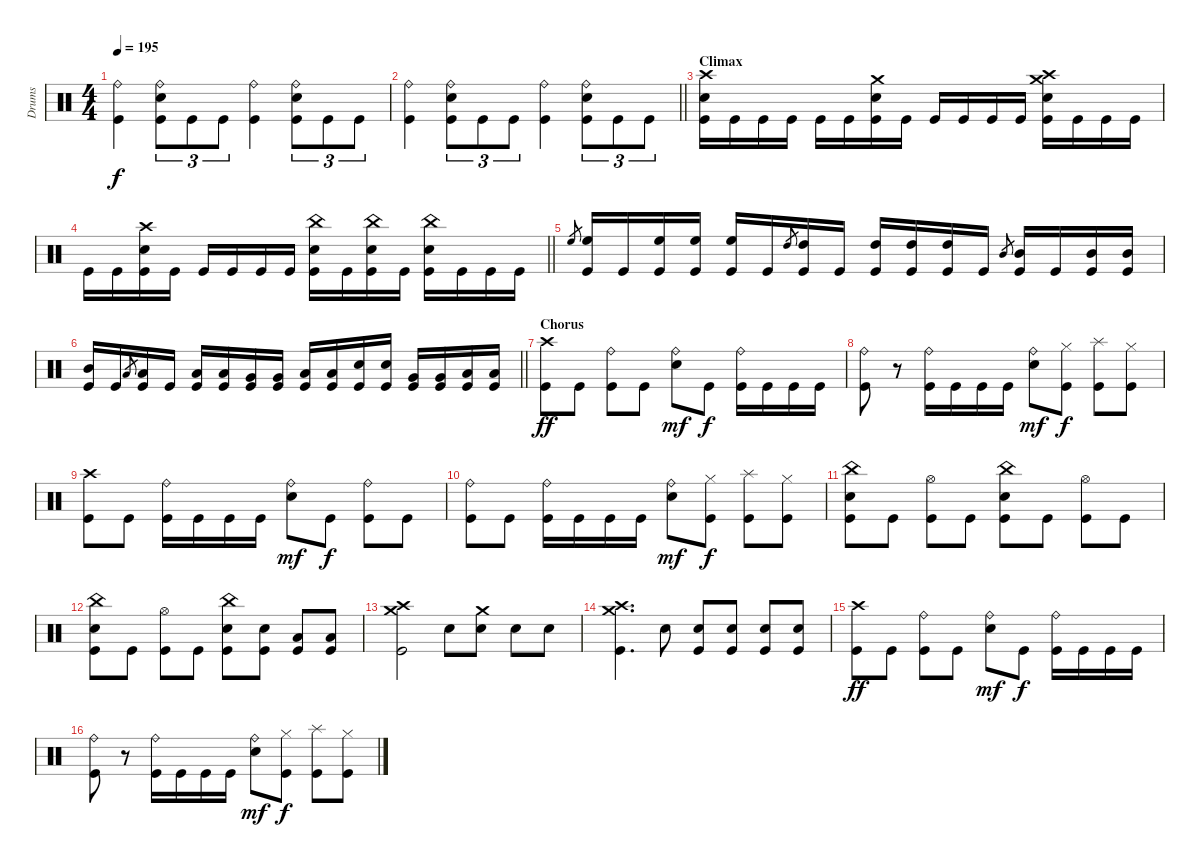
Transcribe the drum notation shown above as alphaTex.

\track ("Drums" "Drums") {instrument percussion}
\staff {score}
\articulation defaults
\ts (4 4)
\tempo 195
\clef neutral
\ks c
("Ride (bell)" "Kick (hit)").4{dy f} ("Ride (bell)" "Snare (hit) 2" "Kick (hit)").8{tu (3 2)} "Kick (hit)".8{tu (3 2)} "Kick (hit)".8{tu (3 2)} ("Ride (bell)" "Kick (hit)").4 ("Ride (bell)" "Snare (hit) 2" "Kick (hit)").8{tu (3 2)} "Kick (hit)".8{tu (3 2)} "Kick (hit)".8{tu (3 2)} |
\barLineRight lightlight
("Ride (bell)" "Kick (hit)").4 ("Ride (bell)" "Snare (hit) 2" "Kick (hit)").8{tu (3 2)} "Kick (hit)".8{tu (3 2)} "Kick (hit)".8{tu (3 2)} ("Ride (bell)" "Kick (hit)").4 ("Ride (bell)" "Snare (hit) 2" "Kick (hit)").8{tu (3 2)} "Kick (hit)".8{tu (3 2)} "Kick (hit)".8{tu (3 2)} |
\section ("" "Climax")
("Crash high (hit)" "Snare (hit) 2" "Kick (hit)").16 "Kick (hit)".16 "Kick (hit)".16 "Kick (hit)".16 "Kick (hit)".16 "Kick (hit)".16 ("Crash medium (hit)" "Snare (hit) 2" "Kick (hit)").16 "Kick (hit)".16 "Kick (hit)".16 "Kick (hit)".16 "Kick (hit)".16 "Kick (hit)".16 ("Crash high (hit)" "Snare (hit) 2" "Crash medium (hit)" "Kick (hit)").16 "Kick (hit)".16 "Kick (hit)".16 "Kick (hit)".16 |
\barLineRight lightlight "Kick (hit)".16 "Kick (hit)".16
("Crash high (hit)" "Snare (hit) 2" "Kick (hit)").16 "Kick (hit)".16 "Kick (hit)".16 "Kick (hit)".16 "Kick (hit)".16 "Kick (hit)".16 ("China (hit)" "Snare (hit) 2" "Kick (hit)").16 "Kick (hit)".16 ("China (hit)" "Snare (hit) 2" "Kick (hit)").16 "Kick (hit)".16 ("China (hit)" "Snare (hit) 2" "Kick (hit)").16 "Kick (hit)".16 "Kick (hit)".16 "Kick (hit)".16 |
"High Floor Tom (hit)".8{gr} ("High Floor Tom (hit)" "Kick (hit)").16 "Kick (hit)".16 ("High Floor Tom (hit)" "Kick (hit)").16 ("High Floor Tom (hit)" "Kick (hit)").16 ("High Floor Tom (hit)" "Kick (hit)").16 "Kick (hit)".16 "High Tom (hit)".8{gr} ("High Tom (hit)" "Kick (hit)").16 "Kick (hit)".16 ("High Tom (hit)" "Kick (hit)").16 ("High Tom (hit)" "Kick (hit)").16 ("High Tom (hit)" "Kick (hit)").16 "Kick (hit)".16 "Mid Tom (hit)".8{gr} ("Mid Tom (hit)" "Kick (hit)").16 "Kick (hit)".16 ("Mid Tom (hit)" "Kick (hit)").16 ("Mid Tom (hit)" "Kick (hit)").16 |
\barLineRight lightlight
("Mid Tom (hit)" "Kick (hit)").16 "Kick (hit)".16 "Low Tom (hit)".8{gr} ("Low Tom (hit)" "Kick (hit)").16 "Kick (hit)".16 ("Low Tom (hit)" "Kick (hit)").16 ("Low Tom (hit)" "Kick (hit)").16 ("Very Low Tom (hit)" "Kick (hit)").16 ("Very Low Tom (hit)" "Kick (hit)").16 ("Low Floor Tom (hit)" "Kick (hit)").16 ("Low Floor Tom (hit)" "Kick (hit)").16 ("Snare (hit) 2" "Kick (hit)").16 ("Snare (hit) 2" "Kick (hit)").16 ("Very Low Tom (hit)" "Kick (hit)").16 ("Very Low Tom (hit)" "Kick (hit)").16 ("Low Floor Tom (hit)" "Kick (hit)").16 ("Low Floor Tom (hit)" "Kick (hit)").16 |
\section ("" "Chorus")
("Crash high (hit)" "Kick (hit)").8{dy ff} "Kick (hit)".8 ("Ride (bell)" "Kick (hit)").8 "Kick (hit)".8 ("Ride (bell)" "Snare (hit) 2").8{dy mf} "Kick (hit)".8{dy f} ("Ride (bell)" "Kick (hit)").16 "Kick (hit)".16 "Kick (hit)".16 "Kick (hit)".16 |
("Ride (bell)" "Kick (hit)").8 r.8 ("Ride (bell)" "Kick (hit)").16 "Kick (hit)".16 "Kick (hit)".16 "Kick (hit)".16 ("Ride (bell)" "Snare (hit) 2").8{dy mf} ("Hi-Hat (closed)" "Kick (hit)").8{dy f} ("Splash (hit)" "Kick (hit)").8 ("Hi-Hat (closed)" "Kick (hit)").8 |
("Crash high (hit)" "Kick (hit)").8 "Kick (hit)".8 ("Ride (bell)" "Kick (hit)").16 "Kick (hit)".16 "Kick (hit)".16 "Kick (hit)".16 ("Ride (bell)" "Snare (hit) 2").8{dy mf} "Kick (hit)".8{dy f} ("Ride (bell)" "Kick (hit)").8 "Kick (hit)".8 |
("Ride (bell)" "Kick (hit)").8 "Kick (hit)".8 ("Ride (bell)" "Kick (hit)").16 "Kick (hit)".16 "Kick (hit)".16 "Kick (hit)".16 ("Ride (bell)" "Snare (hit) 2").8{dy mf} ("Hi-Hat (closed)" "Kick (hit)").8{dy f} ("Splash (hit)" "Kick (hit)").8 ("Hi-Hat (closed)" "Kick (hit)").8 |
("China (hit)" "Snare (hit) 2" "Kick (hit)").8 "Kick (hit)".8 ("Hi-Hat (open)" "Kick (hit)").8 "Kick (hit)".8 ("China (hit)" "Snare (hit) 2" "Kick (hit)").8 "Kick (hit)".8 ("Hi-Hat (open)" "Kick (hit)").8 "Kick (hit)".8 |
("China (hit)" "Snare (hit) 2" "Kick (hit)").8 "Kick (hit)".8 ("Hi-Hat (open)" "Kick (hit)").8 "Kick (hit)".8 ("China (hit)" "Snare (hit) 2" "Kick (hit)").8 ("Snare (hit) 2" "Kick (hit)").8 ("Low Tom (hit)" "Kick (hit)").8 ("Low Tom (hit)" "Kick (hit)").8 |
("Crash medium (hit)" "Crash high (hit)" "Kick (hit)").2 "Snare (hit) 2".8 ("Crash medium (hit)" "Snare (hit) 2").8 "Snare (hit) 2".8 "Snare (hit) 2".8 |
("Crash medium (hit)" "Crash high (hit)" "Kick (hit)").4{d} "Snare (hit) 2".8 ("Snare (hit) 2" "Kick (hit)").8 ("Snare (hit) 2" "Kick (hit)").8 ("Snare (hit) 2" "Kick (hit)").8 ("Snare (hit) 2" "Kick (hit)").8 |
("Crash high (hit)" "Kick (hit)").8{dy ff} "Kick (hit)".8 ("Ride (bell)" "Kick (hit)").8 "Kick (hit)".8 ("Ride (bell)" "Snare (hit) 2").8{dy mf} "Kick (hit)".8{dy f} ("Ride (bell)" "Kick (hit)").16 "Kick (hit)".16 "Kick (hit)".16 "Kick (hit)".16 |
("Ride (bell)" "Kick (hit)").8 r.8 ("Ride (bell)" "Kick (hit)").16 "Kick (hit)".16 "Kick (hit)".16 "Kick (hit)".16 ("Ride (bell)" "Snare (hit) 2").8{dy mf} ("Hi-Hat (closed)" "Kick (hit)").8{dy f} ("Splash (hit)" "Kick (hit)").8 ("Hi-Hat (closed)" "Kick (hit)").8
